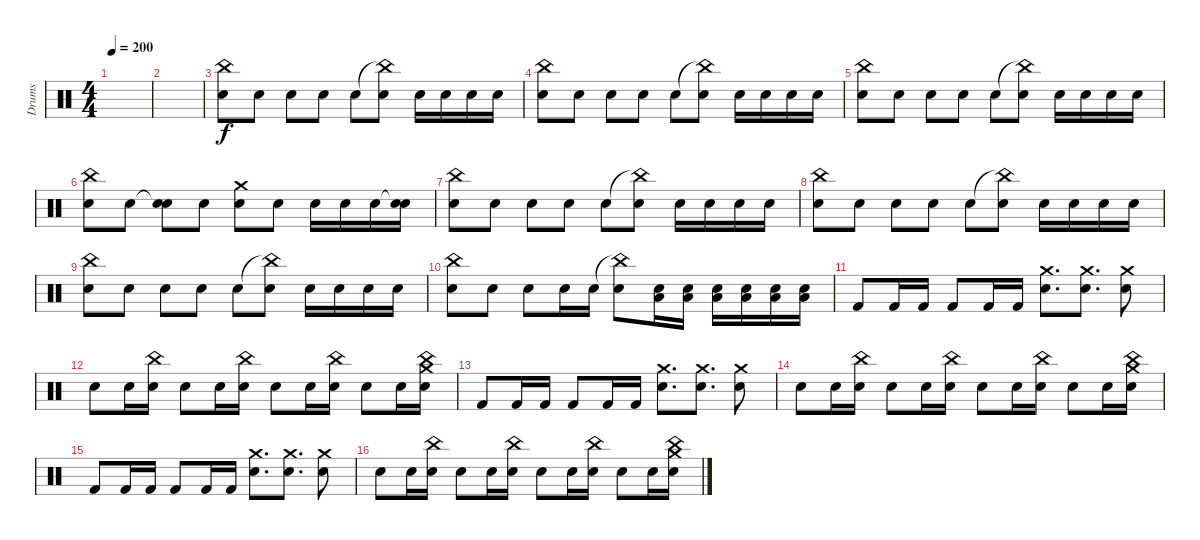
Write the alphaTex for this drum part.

\track ("Drums" "Drums") {instrument percussion}
\staff {score}
\articulation defaults
\ts (4 4)
\tempo 200
\clef neutral
\ks c
|
|
("China (hit)" "Snare (hit) 2").8 "Snare (hit) 2".8 "Snare (hit) 2".8 "Snare (hit) 2".8 "Snare (hit) 2".8 ("China (hit)"{t} "Snare (hit) 2").8 "Snare (hit) 2".16 "Snare (hit) 2".16 "Snare (hit) 2".16 "Snare (hit) 2".16 |
("China (hit)" "Snare (hit) 2").8 "Snare (hit) 2".8 "Snare (hit) 2".8 "Snare (hit) 2".8 "Snare (hit) 2".8 ("China (hit)"{t} "Snare (hit) 2").8 "Snare (hit) 2".16 "Snare (hit) 2".16 "Snare (hit) 2".16 "Snare (hit) 2".16 |
("China (hit)" "Snare (hit) 2").8 "Snare (hit) 2".8 "Snare (hit) 2".8 "Snare (hit) 2".8 "Snare (hit) 2".8 ("China (hit)"{t} "Snare (hit) 2").8 "Snare (hit) 2".16 "Snare (hit) 2".16 "Snare (hit) 2".16 "Snare (hit) 2".16 |
("China (hit)" "Snare (hit) 2").8 "Snare (hit) 2".8 ("Snare (hit)"{t} "Snare (hit) 2").8 "Snare (hit) 2".8 ("Crash medium (hit)" "Snare (hit) 2").8 "Snare (hit) 2".8 "Snare (hit) 2".16 "Snare (hit) 2".16 "Snare (hit) 2".16 ("Snare (hit)"{t} "Snare (hit) 2").16 |
("China (hit)" "Snare (hit) 2").8 "Snare (hit) 2".8 "Snare (hit) 2".8 "Snare (hit) 2".8 "Snare (hit) 2".8 ("China (hit)"{t} "Snare (hit) 2").8 "Snare (hit) 2".16 "Snare (hit) 2".16 "Snare (hit) 2".16 "Snare (hit) 2".16 |
("China (hit)" "Snare (hit) 2").8 "Snare (hit) 2".8 "Snare (hit) 2".8 "Snare (hit) 2".8 "Snare (hit) 2".8 ("China (hit)"{t} "Snare (hit) 2").8 "Snare (hit) 2".16 "Snare (hit) 2".16 "Snare (hit) 2".16 "Snare (hit) 2".16 |
("China (hit)" "Snare (hit) 2").8 "Snare (hit) 2".8 "Snare (hit) 2".8 "Snare (hit) 2".8 "Snare (hit) 2".8 ("China (hit)"{t} "Snare (hit) 2").8 "Snare (hit) 2".16 "Snare (hit) 2".16 "Snare (hit) 2".16 "Snare (hit) 2".16 |
("China (hit)" "Snare (hit) 2").8 "Snare (hit) 2".8 "Snare (hit) 2".8 "Snare (hit) 2".16 "Snare (hit) 2".16 ("China (hit)"{t} "Snare (hit) 2").8 ("Low Floor Tom (hit)" "Electric Snare (hit)").16 ("Low Floor Tom (hit)" "Electric Snare (hit)").16 ("Low Floor Tom (hit)" "Electric Snare (hit)").16 ("Low Floor Tom (hit)" "Electric Snare (hit)").16 ("Low Floor Tom (hit)" "Electric Snare (hit)").16 ("Low Floor Tom (hit)" "Electric Snare (hit)").16 |
"Kick (hit) 2".8 "Kick (hit) 2".16 "Kick (hit) 2".16 "Kick (hit) 2".8 "Kick (hit) 2".16 "Kick (hit) 2".16 ("Snare (hit) 2" "Crash medium (hit)").8{d} ("Snare (hit) 2" "Crash medium (hit)").8{d} ("Snare (hit) 2" "Crash medium (hit)").8 |
"Snare (hit) 2".8 "Snare (hit) 2".16 ("Snare (hit) 2" "China (hit)").16 "Snare (hit) 2".8 "Snare (hit) 2".16 ("Snare (hit) 2" "China (hit)").16 "Snare (hit) 2".8 "Snare (hit) 2".16 ("Snare (hit) 2" "China (hit)").16 "Snare (hit) 2".8 "Snare (hit) 2".16 ("Snare (hit) 2" "Crash medium (hit)" "China (hit)").16 |
"Kick (hit) 2".8 "Kick (hit) 2".16 "Kick (hit) 2".16 "Kick (hit) 2".8 "Kick (hit) 2".16 "Kick (hit) 2".16 ("Snare (hit) 2" "Crash medium (hit)").8{d} ("Snare (hit) 2" "Crash medium (hit)").8{d} ("Snare (hit) 2" "Crash medium (hit)").8 |
"Snare (hit) 2".8 "Snare (hit) 2".16 ("Snare (hit) 2" "China (hit)").16 "Snare (hit) 2".8 "Snare (hit) 2".16 ("Snare (hit) 2" "China (hit)").16 "Snare (hit) 2".8 "Snare (hit) 2".16 ("Snare (hit) 2" "China (hit)").16 "Snare (hit) 2".8 "Snare (hit) 2".16 ("Snare (hit) 2" "Crash medium (hit)" "China (hit)").16 |
"Kick (hit) 2".8 "Kick (hit) 2".16 "Kick (hit) 2".16 "Kick (hit) 2".8 "Kick (hit) 2".16 "Kick (hit) 2".16 ("Snare (hit) 2" "Crash medium (hit)").8{d} ("Snare (hit) 2" "Crash medium (hit)").8{d} ("Snare (hit) 2" "Crash medium (hit)").8 |
"Snare (hit) 2".8 "Snare (hit) 2".16 ("Snare (hit) 2" "China (hit)").16 "Snare (hit) 2".8 "Snare (hit) 2".16 ("Snare (hit) 2" "China (hit)").16 "Snare (hit) 2".8 "Snare (hit) 2".16 ("Snare (hit) 2" "China (hit)").16 "Snare (hit) 2".8 "Snare (hit) 2".16 ("Snare (hit) 2" "Crash medium (hit)" "China (hit)").16
